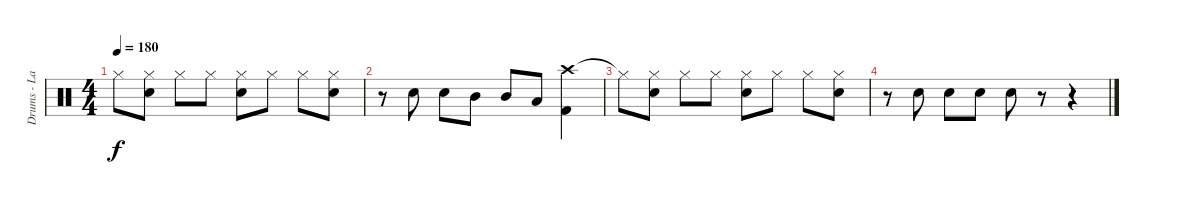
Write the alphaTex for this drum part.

\track ("Drums - Lars" "Drums - La") {instrument percussion}
\staff {score}
\articulation defaults
\ts (4 4)
\tempo 180
\clef neutral
\ks c "Hi-Hat (closed)"{t}.8{dy f}
("Hi-Hat (closed)" "Snare (hit) 2").8 "Hi-Hat (closed)".8 "Hi-Hat (closed)".8 ("Hi-Hat (closed)" "Snare (hit) 2").8 "Hi-Hat (closed)".8 "Hi-Hat (closed)".8 ("Hi-Hat (closed)" "Snare (hit) 2").8 |
r.8 "Snare (hit) 2".8 "Snare (hit) 2".8 "Mid Tom (hit)".8 "Mid Tom (hit)".8 "Low Tom (hit)".8 ("Crash high (hit)" "Kick (hit) 2").4 |
"Hi-Hat (closed)"{t}.8 ("Hi-Hat (closed)" "Snare (hit) 2").8 "Hi-Hat (closed)".8 "Hi-Hat (closed)".8 ("Hi-Hat (closed)" "Snare (hit) 2").8 "Hi-Hat (closed)".8 "Hi-Hat (closed)".8 ("Hi-Hat (closed)" "Snare (hit) 2").8 |
r.8 "Snare (hit) 2".8 "Snare (hit) 2".8 "Snare (hit) 2".8 "Snare (hit) 2".8 r.8 r.4
